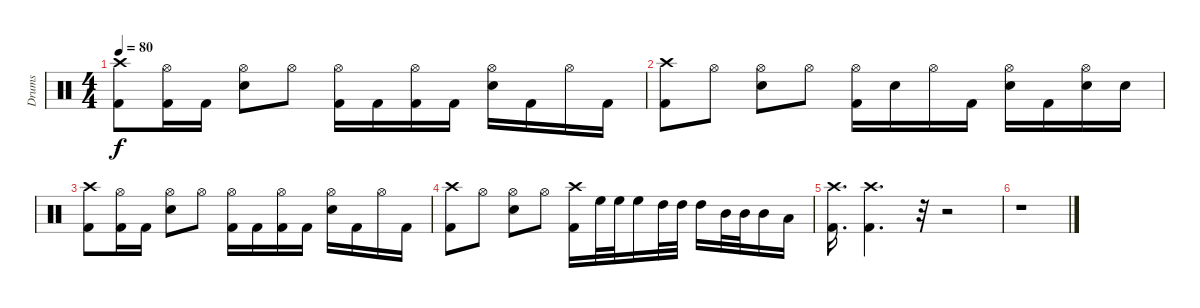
\track ("Drums" "Drums") {instrument percussion}
\staff {score}
\articulation defaults
\ts (4 4)
\tempo 80
\clef neutral
\ks c
("Crash high (hit)" "Kick (hit) 2").8{dy f} ("Hi-Hat (open)" "Kick (hit) 2").16 "Kick (hit) 2".16 ("Hi-Hat (open)" "Electric Snare (hit)").8 "Hi-Hat (open)".8 ("Hi-Hat (open)" "Kick (hit) 2").16 "Kick (hit) 2".16 ("Hi-Hat (open)" "Kick (hit) 2").16 "Kick (hit) 2".16 ("Hi-Hat (open)" "Electric Snare (hit)").16 "Kick (hit) 2".16 "Hi-Hat (open)".16 "Kick (hit) 2".16 |
("Crash high (hit)" "Kick (hit) 2").8 "Hi-Hat (open)".8 ("Hi-Hat (open)" "Electric Snare (hit)").8 "Hi-Hat (open)".8 ("Hi-Hat (open)" "Kick (hit) 2").16 "Electric Snare (hit)".16 "Hi-Hat (open)".16 "Kick (hit) 2".16 ("Hi-Hat (open)" "Electric Snare (hit)").16 "Kick (hit) 2".16 ("Hi-Hat (open)" "Electric Snare (hit)").16 "Electric Snare (hit)".16 |
("Crash high (hit)" "Kick (hit) 2").8 ("Hi-Hat (open)" "Kick (hit) 2").16 "Kick (hit) 2".16 ("Hi-Hat (open)" "Electric Snare (hit)").8 "Hi-Hat (open)".8 ("Hi-Hat (open)" "Kick (hit) 2").16 "Kick (hit) 2".16 ("Hi-Hat (open)" "Kick (hit) 2").16 "Kick (hit) 2".16 ("Hi-Hat (open)" "Electric Snare (hit)").16 "Kick (hit) 2".16 "Hi-Hat (open)".16 "Kick (hit) 2".16 |
("Crash high (hit)" "Kick (hit) 2").8 "Hi-Hat (open)".8 ("Hi-Hat (open)" "Electric Snare (hit)").8 "Hi-Hat (open)".8 ("Crash high (hit)" "Kick (hit) 2").16 "High Floor Tom (hit)".32 "High Floor Tom (hit)".32 "High Floor Tom (hit)".16 "High Tom (hit)".32 "High Tom (hit)".32 "High Tom (hit)".16 "Mid Tom (hit)".32 "Mid Tom (hit)".32 "Mid Tom (hit)".16 "Low Tom (hit)".16 |
("Crash high (hit)" "Kick (hit) 2").16{d} ("Crash high (hit)" "Kick (hit) 2").4{d} r.32 r.2 |
r.1
